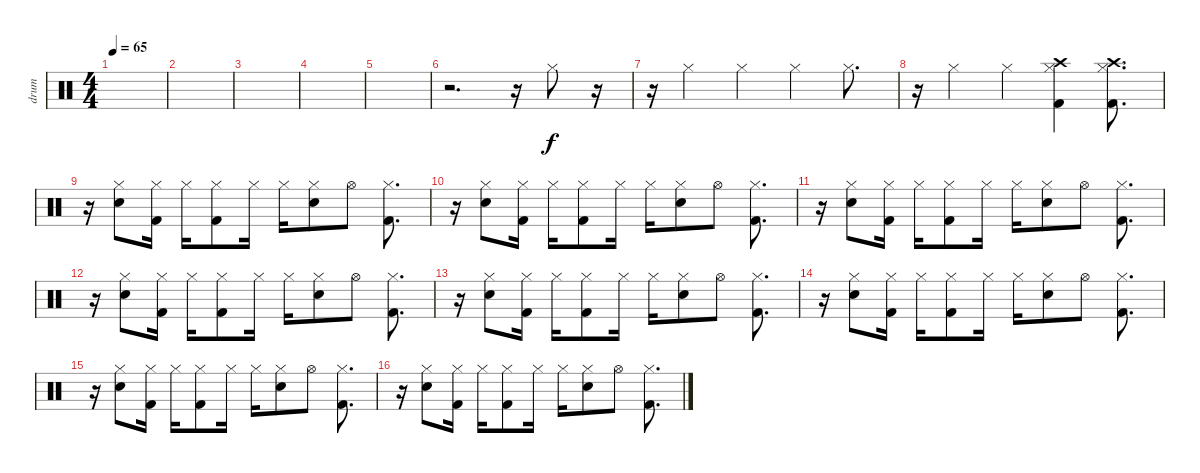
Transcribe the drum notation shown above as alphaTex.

\track ("drum" "drum") {instrument percussion}
\staff {score}
\articulation defaults
\ts (4 4)
\tempo 65
\clef neutral
\ks c
|
|
|
|
|
r.2{d} r.16 "Hi-Hat (closed)".8 r.16 |
r.16 "Hi-Hat (closed)".4 "Hi-Hat (closed)".4 "Hi-Hat (closed)".4 "Hi-Hat (closed)".8{d} |
r.16 "Hi-Hat (closed)".4 "Hi-Hat (closed)".4 ("Crash high (hit)" "Hi-Hat (closed)" "Kick (hit) 2").4 ("Crash high (hit)" "Hi-Hat (closed)" "Kick (hit) 2").8{d} |
r.16 ("Hi-Hat (closed)" "Electric Snare (hit)").8 ("Hi-Hat (closed)" "Kick (hit) 2").16 "Hi-Hat (closed)".16 ("Hi-Hat (closed)" "Kick (hit) 2").8 "Hi-Hat (closed)".16 "Hi-Hat (closed)".16 ("Hi-Hat (closed)" "Electric Snare (hit)").8 "Hi-Hat (open)".8 ("Hi-Hat (closed)" "Kick (hit) 2").8{d} |
r.16 ("Hi-Hat (closed)" "Electric Snare (hit)").8 ("Hi-Hat (closed)" "Kick (hit) 2").16 "Hi-Hat (closed)".16 ("Hi-Hat (closed)" "Kick (hit) 2").8 "Hi-Hat (closed)".16 "Hi-Hat (closed)".16 ("Hi-Hat (closed)" "Electric Snare (hit)").8 "Hi-Hat (open)".8 ("Hi-Hat (closed)" "Kick (hit) 2").8{d} |
r.16 ("Hi-Hat (closed)" "Electric Snare (hit)").8 ("Hi-Hat (closed)" "Kick (hit) 2").16 "Hi-Hat (closed)".16 ("Hi-Hat (closed)" "Kick (hit) 2").8 "Hi-Hat (closed)".16 "Hi-Hat (closed)".16 ("Hi-Hat (closed)" "Electric Snare (hit)").8 "Hi-Hat (open)".8 ("Hi-Hat (closed)" "Kick (hit) 2").8{d} |
r.16 ("Hi-Hat (closed)" "Electric Snare (hit)").8 ("Hi-Hat (closed)" "Kick (hit) 2").16 "Hi-Hat (closed)".16 ("Hi-Hat (closed)" "Kick (hit) 2").8 "Hi-Hat (closed)".16 "Hi-Hat (closed)".16 ("Hi-Hat (closed)" "Electric Snare (hit)").8 "Hi-Hat (open)".8 ("Hi-Hat (closed)" "Kick (hit) 2").8{d} |
r.16 ("Hi-Hat (closed)" "Electric Snare (hit)").8 ("Hi-Hat (closed)" "Kick (hit) 2").16 "Hi-Hat (closed)".16 ("Hi-Hat (closed)" "Kick (hit) 2").8 "Hi-Hat (closed)".16 "Hi-Hat (closed)".16 ("Hi-Hat (closed)" "Electric Snare (hit)").8 "Hi-Hat (open)".8 ("Hi-Hat (closed)" "Kick (hit) 2").8{d} |
r.16 ("Hi-Hat (closed)" "Electric Snare (hit)").8 ("Hi-Hat (closed)" "Kick (hit) 2").16 "Hi-Hat (closed)".16 ("Hi-Hat (closed)" "Kick (hit) 2").8 "Hi-Hat (closed)".16 "Hi-Hat (closed)".16 ("Hi-Hat (closed)" "Electric Snare (hit)").8 "Hi-Hat (open)".8 ("Hi-Hat (closed)" "Kick (hit) 2").8{d} |
r.16 ("Hi-Hat (closed)" "Electric Snare (hit)").8 ("Hi-Hat (closed)" "Kick (hit) 2").16 "Hi-Hat (closed)".16 ("Hi-Hat (closed)" "Kick (hit) 2").8 "Hi-Hat (closed)".16 "Hi-Hat (closed)".16 ("Hi-Hat (closed)" "Electric Snare (hit)").8 "Hi-Hat (open)".8 ("Hi-Hat (closed)" "Kick (hit) 2").8{d} |
r.16 ("Hi-Hat (closed)" "Electric Snare (hit)").8 ("Hi-Hat (closed)" "Kick (hit) 2").16 "Hi-Hat (closed)".16 ("Hi-Hat (closed)" "Kick (hit) 2").8 "Hi-Hat (closed)".16 "Hi-Hat (closed)".16 ("Hi-Hat (closed)" "Electric Snare (hit)").8 "Hi-Hat (open)".8 ("Hi-Hat (closed)" "Kick (hit) 2").8{d}
